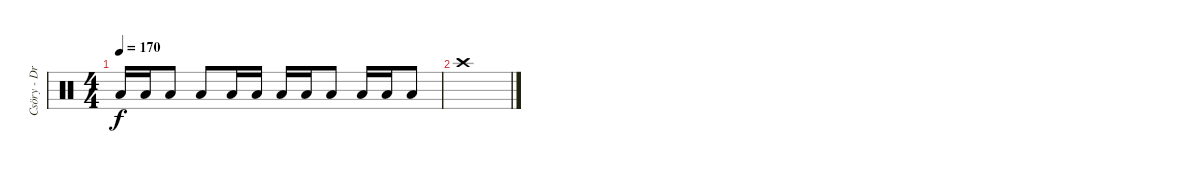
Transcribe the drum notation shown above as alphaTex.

\track ("Csöry - DrumZ" "Csöry - Dr") {instrument percussion}
\staff {score}
\articulation defaults
\ts (4 4)
\tempo 170
\clef neutral
\ks c "Low Tom (hit)".16{dy f} "Low Tom (hit)".16 "Low Tom (hit)".8 "Low Tom (hit)".8 "Low Tom (hit)".16 "Low Tom (hit)".16 "Low Tom (hit)".16 "Low Tom (hit)".16 "Low Tom (hit)".8 "Low Tom (hit)".16 "Low Tom (hit)".16 "Low Tom (hit)".8
|
"Crash high (hit)".1
